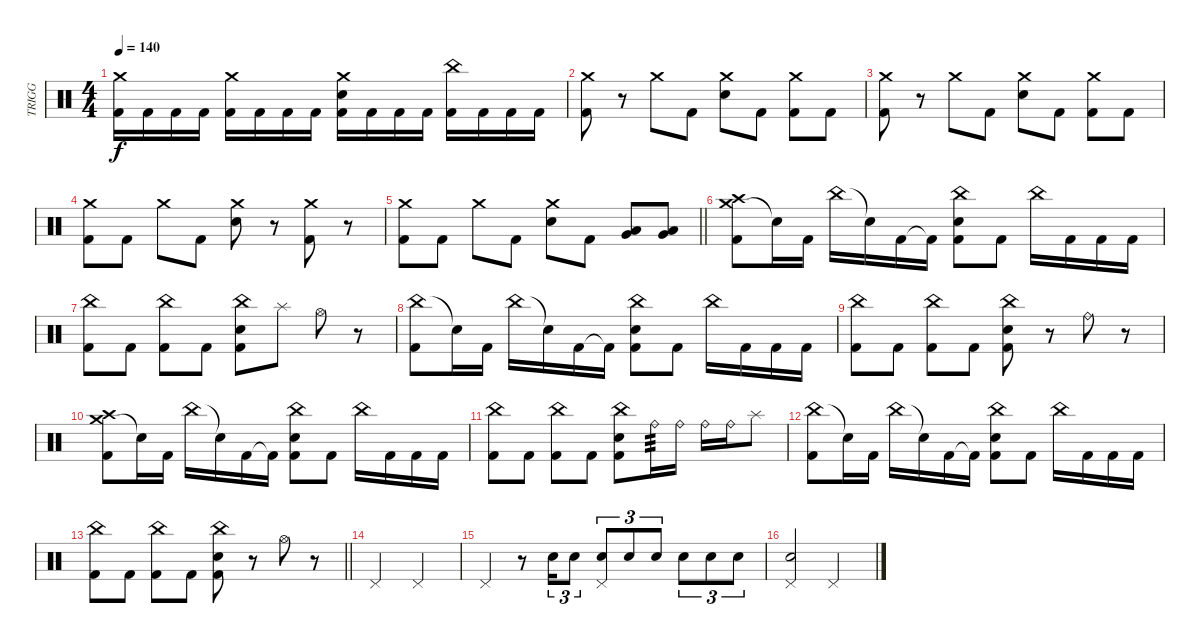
\track ("TRIGG" "TRIGG") {instrument percussion}
\staff {score}
\articulation defaults
\ts (4 4)
\tempo 140
\clef neutral
\ks c
("Crash medium (hit)" "Kick (hit) 2").16{dy f} "Kick (hit) 2".16 "Kick (hit) 2".16 "Kick (hit) 2".16 ("Crash medium (hit)" "Kick (hit) 2").16 "Kick (hit) 2".16 "Kick (hit) 2".16 "Kick (hit) 2".16 ("Crash medium (hit)" "Electric Snare (hit)" "Kick (hit) 2").16 "Kick (hit) 2".16 "Kick (hit) 2".16 "Kick (hit) 2".16 ("China (hit)" "Kick (hit) 2").16 "Kick (hit) 2".16 "Kick (hit) 2".16 "Kick (hit) 2".16 |
("Crash medium (hit)" "Kick (hit) 2").8 r.8 "Crash medium (hit)".8 "Kick (hit) 2".8 ("Crash medium (hit)" "Electric Snare (hit)").8 "Kick (hit) 2".8 ("Crash medium (hit)" "Kick (hit) 2").8 "Kick (hit) 2".8 |
("Crash medium (hit)" "Kick (hit) 2").8 r.8 "Crash medium (hit)".8 "Kick (hit) 2".8 ("Crash medium (hit)" "Electric Snare (hit)").8 "Kick (hit) 2".8 ("Crash medium (hit)" "Kick (hit) 2").8 "Kick (hit) 2".8 |
("Crash medium (hit)" "Kick (hit) 2").8 "Kick (hit) 2".8 "Crash medium (hit)".8 "Kick (hit) 2".8 ("Crash medium (hit)" "Electric Snare (hit)").8 r.8 ("Crash medium (hit)" "Kick (hit) 2").8 r.8 |
\barLineRight lightlight
("Crash medium (hit)" "Kick (hit) 2").8 "Kick (hit) 2".8 "Crash medium (hit)".8 "Kick (hit) 2".8 ("Crash medium (hit)" "Electric Snare (hit)").8 "Kick (hit) 2".8 ("Very Low Tom (hit)" "Low Floor Tom (hit)").8 ("Very Low Tom (hit)" "Low Floor Tom (hit)").8 |
("Crash medium (hit)" "Crash high (hit)" "Kick (hit) 2").8 "Snare (hit)"{t}.16 "Kick (hit) 2".16 "China (hit)".16 "Snare (hit)"{t}.16 "Kick (hit) 2".16 "Kick (hit) 2"{t}.16 ("China (hit)" "Electric Snare (hit)" "Kick (hit) 2").8 "Kick (hit) 2".8 "China (hit)".16 "Kick (hit) 2".16 "Kick (hit) 2".16 "Kick (hit) 2".16 |
("China (hit)" "Kick (hit) 2").8 "Kick (hit) 2".8 ("China (hit)" "Kick (hit) 2").8 "Kick (hit) 2".8 ("China (hit)" "Electric Snare (hit)" "Kick (hit) 2").8 "Splash (hit)".8 "Hi-Hat (open)".8 r.8 |
("China (hit)" "Kick (hit) 2").8 "Snare (hit)"{t}.16 "Kick (hit) 2".16 "China (hit)".16 "Snare (hit)"{t}.16 "Kick (hit) 2".16 "Kick (hit) 2"{t}.16 ("China (hit)" "Electric Snare (hit)" "Kick (hit) 2").8 "Kick (hit) 2".8 "China (hit)".16 "Kick (hit) 2".16 "Kick (hit) 2".16 "Kick (hit) 2".16 |
("China (hit)" "Kick (hit) 2").8 "Kick (hit) 2".8 ("China (hit)" "Kick (hit) 2").8 "Kick (hit) 2".8 ("China (hit)" "Electric Snare (hit)" "Kick (hit) 2").8 r.8 "Ride (bell)".8 r.8 |
("Crash medium (hit)" "Crash high (hit)" "Kick (hit) 2").8 "Snare (hit)"{t}.16 "Kick (hit) 2".16 "China (hit)".16 "Snare (hit)"{t}.16 "Kick (hit) 2".16 "Kick (hit) 2"{t}.16 ("China (hit)" "Electric Snare (hit)" "Kick (hit) 2").8 "Kick (hit) 2".8 "China (hit)".16 "Kick (hit) 2".16 "Kick (hit) 2".16 "Kick (hit) 2".16 |
("China (hit)" "Kick (hit) 2").8 "Kick (hit) 2".8 ("China (hit)" "Kick (hit) 2").8 "Kick (hit) 2".8 ("China (hit)" "Electric Snare (hit)" "Kick (hit) 2").8 "Ride (bell)".16{tp 3} "Ride (bell)".16 "Ride (bell)".16 "Ride (bell)".16 "Splash (hit)".8 |
("China (hit)" "Kick (hit) 2").8 "Snare (hit)"{t}.16 "Kick (hit) 2".16 "China (hit)".16 "Snare (hit)"{t}.16 "Kick (hit) 2".16 "Kick (hit) 2"{t}.16 ("China (hit)" "Electric Snare (hit)" "Kick (hit) 2").8 "Kick (hit) 2".8 "China (hit)".16 "Kick (hit) 2".16 "Kick (hit) 2".16 "Kick (hit) 2".16 |
\barLineRight lightlight
("China (hit)" "Kick (hit) 2").8 "Kick (hit) 2".8 ("China (hit)" "Kick (hit) 2").8 "Kick (hit) 2".8 ("China (hit)" "Electric Snare (hit)" "Kick (hit) 2").8 r.8 "Hi-Hat (open)".8 r.8 |
"Pedal Hi-Hat (hit)".2 "Pedal Hi-Hat (hit)".2 |
"Pedal Hi-Hat (hit)".4 r.8 "Electric Snare (hit)".16{tu (3 2)} "Electric Snare (hit)".8{tu (3 2)} ("Pedal Hi-Hat (hit)" "Electric Snare (hit)").8{tu (3 2)} "Electric Snare (hit)".8{tu (3 2)} "Electric Snare (hit)".8{tu (3 2)} "Electric Snare (hit)".8{tu (3 2)} "Electric Snare (hit)".8{tu (3 2)} "Electric Snare (hit)".8{tu (3 2)} |
("Pedal Hi-Hat (hit)" "Electric Snare (hit)").2 "Pedal Hi-Hat (hit)".2
